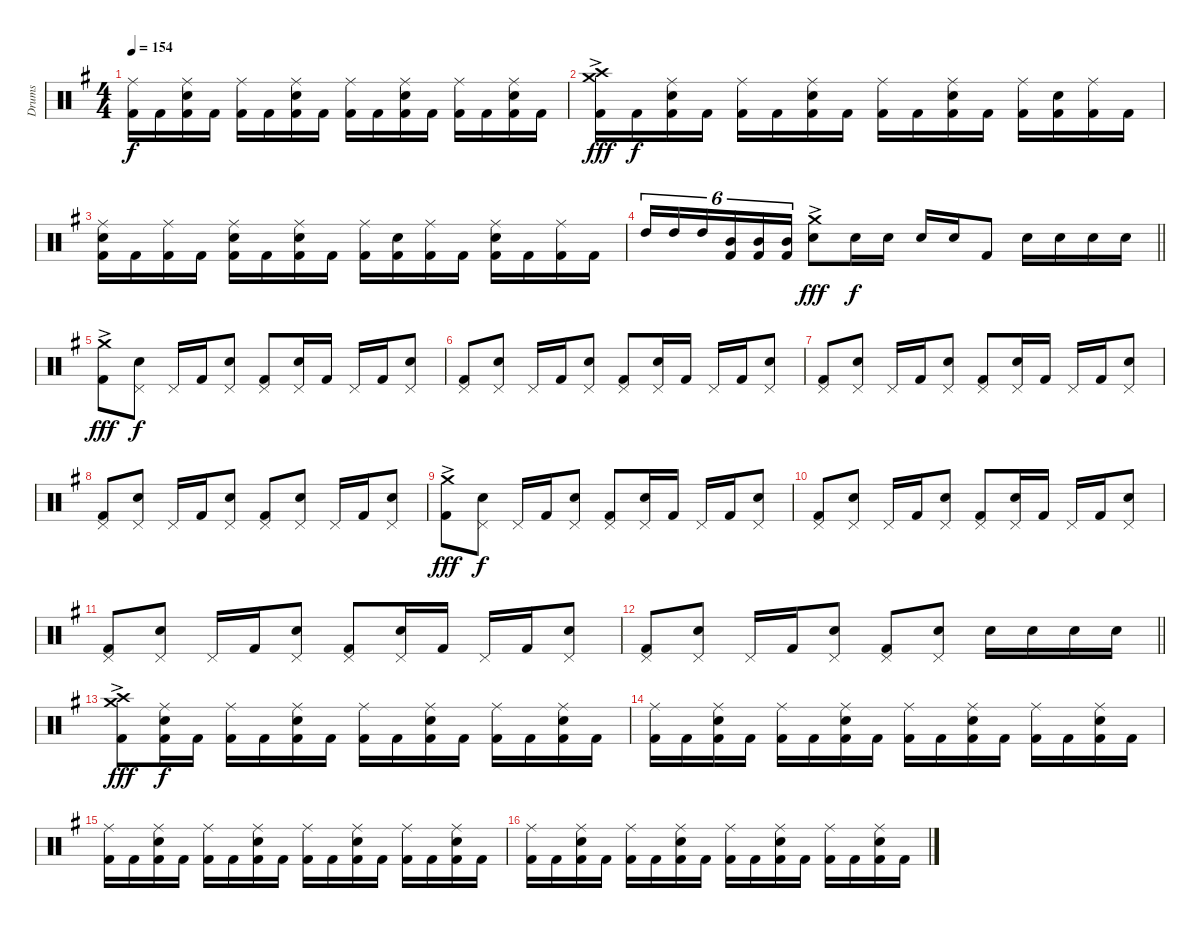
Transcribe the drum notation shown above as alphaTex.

\track ("Drums" "Drums") {instrument percussion}
\staff {score}
\articulation defaults
\ts (4 4)
\tempo 154
\clef neutral
\ks g
("Ride (middle)" "Kick (hit) 2").16{dy f} "Kick (hit) 2".16 ("Ride (middle)" "Snare (hit) 2" "Kick (hit) 2").16 "Kick (hit) 2".16 ("Ride (middle)" "Kick (hit) 2").16 "Kick (hit) 2".16 ("Ride (middle)" "Snare (hit) 2" "Kick (hit) 2").16 "Kick (hit) 2".16 ("Ride (middle)" "Kick (hit) 2").16 "Kick (hit) 2".16 ("Ride (middle)" "Snare (hit) 2" "Kick (hit) 2").16 "Kick (hit) 2".16 ("Ride (middle)" "Kick (hit) 2").16 "Kick (hit) 2".16 ("Ride (middle)" "Snare (hit) 2" "Kick (hit) 2").16 "Kick (hit) 2".16 |
("Crash medium (hit)"{ac} "Crash high (hit)"{ac} "Kick (hit) 2"{ac}).16{dy fff} "Kick (hit) 2".16{dy f} ("Ride (middle)" "Snare (hit) 2" "Kick (hit) 2").16 "Kick (hit) 2".16 ("Ride (middle)" "Kick (hit) 2").16 "Kick (hit) 2".16 ("Ride (middle)" "Snare (hit) 2" "Kick (hit) 2").16 "Kick (hit) 2".16 ("Ride (middle)" "Kick (hit) 2").16 "Kick (hit) 2".16 ("Ride (middle)" "Snare (hit) 2" "Kick (hit) 2").16 "Kick (hit) 2".16 ("Ride (middle)" "Kick (hit) 2").16 ("Snare (hit) 2" "Kick (hit) 2").16 ("Ride (middle)" "Kick (hit) 2").16 "Kick (hit) 2".16 |
("Ride (middle)" "Snare (hit) 2" "Kick (hit) 2").16 "Kick (hit) 2".16 ("Ride (middle)" "Kick (hit) 2").16 "Kick (hit) 2".16 ("Ride (middle)" "Snare (hit) 2" "Kick (hit) 2").16 "Kick (hit) 2".16 ("Ride (middle)" "Snare (hit) 2" "Kick (hit) 2").16 "Kick (hit) 2".16 ("Ride (middle)" "Kick (hit) 2").16 ("Snare (hit) 2" "Kick (hit) 2").16 ("Ride (middle)" "Kick (hit) 2").16 "Kick (hit) 2".16 ("Ride (middle)" "Snare (hit) 2" "Kick (hit) 2").16 "Kick (hit) 2".16 ("Ride (middle)" "Kick (hit) 2").16 "Kick (hit) 2".16 |
\barLineRight lightlight "High Tom (hit)".16{tu (6 4)} "High Tom (hit)".16{tu (6 4)} "High Tom (hit)".16{tu (6 4)}
("Mid Tom (hit)" "Kick (hit) 2").16{tu (6 4)} ("Mid Tom (hit)" "Kick (hit) 2").16{tu (6 4)} ("Mid Tom (hit)" "Kick (hit) 2").16{tu (6 4)} ("Crash medium (hit)"{ac} "Snare (hit) 2"{ac}).8{dy fff} "Snare (hit) 2".16{dy f} "Snare (hit) 2".16 "Snare (hit) 2".16 "Snare (hit) 2".16 "Kick (hit) 2".8 "Snare (hit) 2".16 "Snare (hit) 2".16 "Snare (hit) 2".16 "Snare (hit) 2".16 |
("Crash medium (hit)"{ac} "Kick (hit) 2"{ac}).8{dy fff} ("Pedal Hi-Hat (hit)" "Snare (hit) 2").8{dy f} "Pedal Hi-Hat (hit)".16 "Kick (hit) 2".16 ("Pedal Hi-Hat (hit)" "Snare (hit) 2").8 ("Pedal Hi-Hat (hit)" "Kick (hit) 2").8 ("Pedal Hi-Hat (hit)" "Snare (hit) 2").16 "Kick (hit) 2".16 "Pedal Hi-Hat (hit)".16 "Kick (hit) 2".16 ("Pedal Hi-Hat (hit)" "Snare (hit) 2").8 |
("Pedal Hi-Hat (hit)" "Kick (hit) 2").8 ("Pedal Hi-Hat (hit)" "Snare (hit) 2").8 "Pedal Hi-Hat (hit)".16 "Kick (hit) 2".16 ("Pedal Hi-Hat (hit)" "Snare (hit) 2").8 ("Pedal Hi-Hat (hit)" "Kick (hit) 2").8 ("Pedal Hi-Hat (hit)" "Snare (hit) 2").16 "Kick (hit) 2".16 "Pedal Hi-Hat (hit)".16 "Kick (hit) 2".16 ("Pedal Hi-Hat (hit)" "Snare (hit) 2").8 |
("Pedal Hi-Hat (hit)" "Kick (hit) 2").8 ("Pedal Hi-Hat (hit)" "Snare (hit) 2").8 "Pedal Hi-Hat (hit)".16 "Kick (hit) 2".16 ("Pedal Hi-Hat (hit)" "Snare (hit) 2").8 ("Pedal Hi-Hat (hit)" "Kick (hit) 2").8 ("Pedal Hi-Hat (hit)" "Snare (hit) 2").16 "Kick (hit) 2".16 "Pedal Hi-Hat (hit)".16 "Kick (hit) 2".16 ("Pedal Hi-Hat (hit)" "Snare (hit) 2").8 |
("Pedal Hi-Hat (hit)" "Kick (hit) 2").8 ("Pedal Hi-Hat (hit)" "Snare (hit) 2").8 "Pedal Hi-Hat (hit)".16 "Kick (hit) 2".16 ("Pedal Hi-Hat (hit)" "Snare (hit) 2").8 ("Pedal Hi-Hat (hit)" "Kick (hit) 2").8 ("Pedal Hi-Hat (hit)" "Snare (hit) 2").8 "Pedal Hi-Hat (hit)".16 "Kick (hit) 2".16 ("Pedal Hi-Hat (hit)" "Snare (hit) 2").8 |
("Crash medium (hit)"{ac} "Kick (hit) 2"{ac}).8{dy fff} ("Pedal Hi-Hat (hit)" "Snare (hit) 2").8{dy f} "Pedal Hi-Hat (hit)".16 "Kick (hit) 2".16 ("Pedal Hi-Hat (hit)" "Snare (hit) 2").8 ("Pedal Hi-Hat (hit)" "Kick (hit) 2").8 ("Pedal Hi-Hat (hit)" "Snare (hit) 2").16 "Kick (hit) 2".16 "Pedal Hi-Hat (hit)".16 "Kick (hit) 2".16 ("Pedal Hi-Hat (hit)" "Snare (hit) 2").8 |
("Pedal Hi-Hat (hit)" "Kick (hit) 2").8 ("Pedal Hi-Hat (hit)" "Snare (hit) 2").8 "Pedal Hi-Hat (hit)".16 "Kick (hit) 2".16 ("Pedal Hi-Hat (hit)" "Snare (hit) 2").8 ("Pedal Hi-Hat (hit)" "Kick (hit) 2").8 ("Pedal Hi-Hat (hit)" "Snare (hit) 2").16 "Kick (hit) 2".16 "Pedal Hi-Hat (hit)".16 "Kick (hit) 2".16 ("Pedal Hi-Hat (hit)" "Snare (hit) 2").8 |
("Pedal Hi-Hat (hit)" "Kick (hit) 2").8 ("Pedal Hi-Hat (hit)" "Snare (hit) 2").8 "Pedal Hi-Hat (hit)".16 "Kick (hit) 2".16 ("Pedal Hi-Hat (hit)" "Snare (hit) 2").8 ("Pedal Hi-Hat (hit)" "Kick (hit) 2").8 ("Pedal Hi-Hat (hit)" "Snare (hit) 2").16 "Kick (hit) 2".16 "Pedal Hi-Hat (hit)".16 "Kick (hit) 2".16 ("Pedal Hi-Hat (hit)" "Snare (hit) 2").8 |
\barLineRight lightlight
("Pedal Hi-Hat (hit)" "Kick (hit) 2").8 ("Pedal Hi-Hat (hit)" "Snare (hit) 2").8 "Pedal Hi-Hat (hit)".16 "Kick (hit) 2".16 ("Pedal Hi-Hat (hit)" "Snare (hit) 2").8 ("Pedal Hi-Hat (hit)" "Kick (hit) 2").8 ("Pedal Hi-Hat (hit)" "Snare (hit) 2").8 "Snare (hit) 2".16 "Snare (hit) 2".16 "Snare (hit) 2".16 "Snare (hit) 2".16 |
("Crash medium (hit)"{ac} "Crash high (hit)"{ac} "Kick (hit) 2"{ac}).8{dy fff} ("Ride (middle)" "Snare (hit) 2" "Kick (hit) 2").16{dy f} "Kick (hit) 2".16 ("Ride (middle)" "Kick (hit) 2").16 "Kick (hit) 2".16 ("Ride (middle)" "Snare (hit) 2" "Kick (hit) 2").16 "Kick (hit) 2".16 ("Ride (middle)" "Kick (hit) 2").16 "Kick (hit) 2".16 ("Ride (middle)" "Snare (hit) 2" "Kick (hit) 2").16 "Kick (hit) 2".16 ("Ride (middle)" "Kick (hit) 2").16 "Kick (hit) 2".16 ("Ride (middle)" "Snare (hit) 2" "Kick (hit) 2").16 "Kick (hit) 2".16 |
("Ride (middle)" "Kick (hit) 2").16 "Kick (hit) 2".16 ("Ride (middle)" "Snare (hit) 2" "Kick (hit) 2").16 "Kick (hit) 2".16 ("Ride (middle)" "Kick (hit) 2").16 "Kick (hit) 2".16 ("Ride (middle)" "Snare (hit) 2" "Kick (hit) 2").16 "Kick (hit) 2".16 ("Ride (middle)" "Kick (hit) 2").16 "Kick (hit) 2".16 ("Ride (middle)" "Snare (hit) 2" "Kick (hit) 2").16 "Kick (hit) 2".16 ("Ride (middle)" "Kick (hit) 2").16 "Kick (hit) 2".16 ("Ride (middle)" "Snare (hit) 2" "Kick (hit) 2").16 "Kick (hit) 2".16 |
("Ride (middle)" "Kick (hit) 2").16 "Kick (hit) 2".16 ("Ride (middle)" "Snare (hit) 2" "Kick (hit) 2").16 "Kick (hit) 2".16 ("Ride (middle)" "Kick (hit) 2").16 "Kick (hit) 2".16 ("Ride (middle)" "Snare (hit) 2" "Kick (hit) 2").16 "Kick (hit) 2".16 ("Ride (middle)" "Kick (hit) 2").16 "Kick (hit) 2".16 ("Ride (middle)" "Snare (hit) 2" "Kick (hit) 2").16 "Kick (hit) 2".16 ("Ride (middle)" "Kick (hit) 2").16 "Kick (hit) 2".16 ("Ride (middle)" "Snare (hit) 2" "Kick (hit) 2").16 "Kick (hit) 2".16 |
("Ride (middle)" "Kick (hit) 2").16 "Kick (hit) 2".16 ("Ride (middle)" "Snare (hit) 2" "Kick (hit) 2").16 "Kick (hit) 2".16 ("Ride (middle)" "Kick (hit) 2").16 "Kick (hit) 2".16 ("Ride (middle)" "Snare (hit) 2" "Kick (hit) 2").16 "Kick (hit) 2".16 ("Ride (middle)" "Kick (hit) 2").16 "Kick (hit) 2".16 ("Ride (middle)" "Snare (hit) 2" "Kick (hit) 2").16 "Kick (hit) 2".16 ("Ride (middle)" "Kick (hit) 2").16 "Kick (hit) 2".16 ("Ride (middle)" "Snare (hit) 2" "Kick (hit) 2").16 "Kick (hit) 2".16
